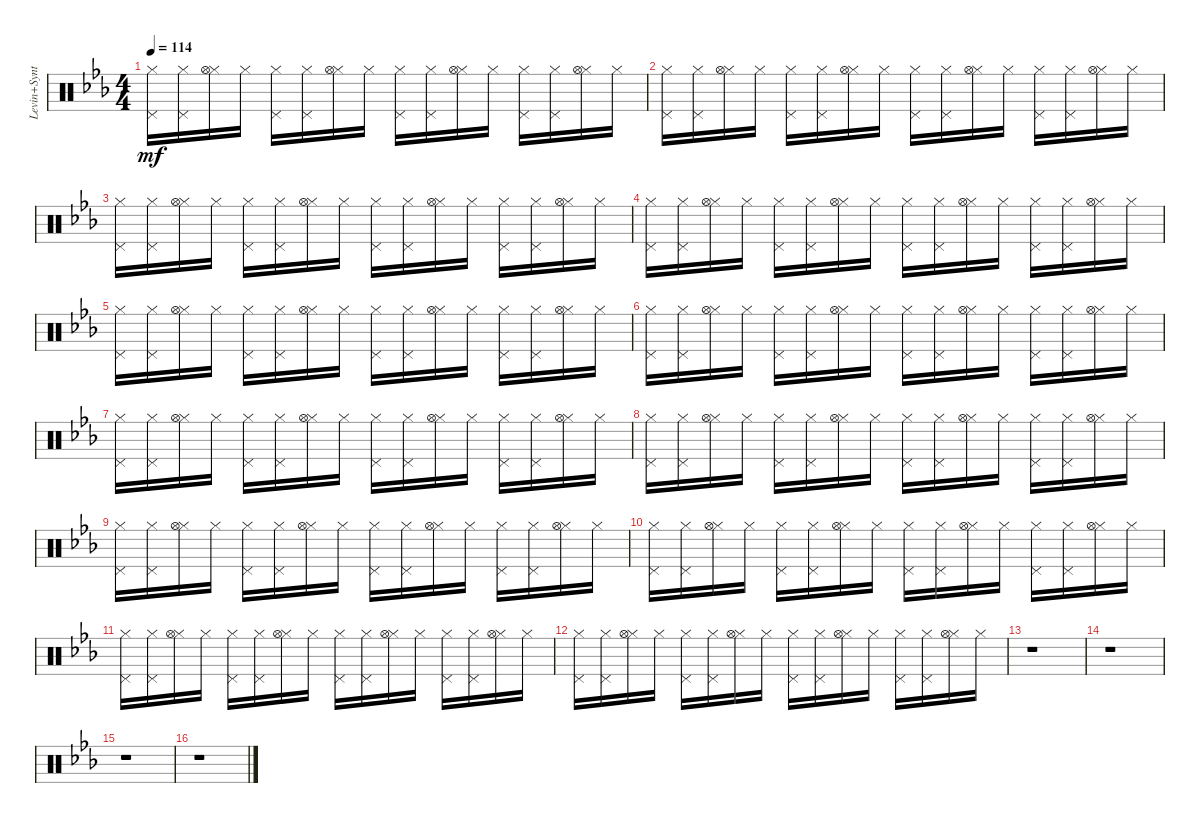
\track ("Levin+Synth" "Levin+Synt") {instrument percussion}
\staff {score}
\articulation defaults
\ts (4 4)
\tempo 114
\clef neutral
\ks eb
("Hi-Hat (closed)" "Pedal Hi-Hat (hit)").16{dy mf} ("Hi-Hat (closed)" "Pedal Hi-Hat (hit)").16 ("Hi-Hat (closed)" "Hi-Hat (open)").16 "Hi-Hat (closed)".16 ("Hi-Hat (closed)" "Pedal Hi-Hat (hit)").16 ("Hi-Hat (closed)" "Pedal Hi-Hat (hit)").16 ("Hi-Hat (closed)" "Hi-Hat (open)").16 "Hi-Hat (closed)".16 ("Hi-Hat (closed)" "Pedal Hi-Hat (hit)").16 ("Hi-Hat (closed)" "Pedal Hi-Hat (hit)").16 ("Hi-Hat (closed)" "Hi-Hat (open)").16 "Hi-Hat (closed)".16 ("Hi-Hat (closed)" "Pedal Hi-Hat (hit)").16 ("Hi-Hat (closed)" "Pedal Hi-Hat (hit)").16 ("Hi-Hat (closed)" "Hi-Hat (open)").16 "Hi-Hat (closed)".16 |
("Hi-Hat (closed)" "Pedal Hi-Hat (hit)").16 ("Hi-Hat (closed)" "Pedal Hi-Hat (hit)").16 ("Hi-Hat (closed)" "Hi-Hat (open)").16 "Hi-Hat (closed)".16 ("Hi-Hat (closed)" "Pedal Hi-Hat (hit)").16 ("Hi-Hat (closed)" "Pedal Hi-Hat (hit)").16 ("Hi-Hat (closed)" "Hi-Hat (open)").16 "Hi-Hat (closed)".16 ("Hi-Hat (closed)" "Pedal Hi-Hat (hit)").16 ("Hi-Hat (closed)" "Pedal Hi-Hat (hit)").16 ("Hi-Hat (closed)" "Hi-Hat (open)").16 "Hi-Hat (closed)".16 ("Hi-Hat (closed)" "Pedal Hi-Hat (hit)").16 ("Hi-Hat (closed)" "Pedal Hi-Hat (hit)").16 ("Hi-Hat (closed)" "Hi-Hat (open)").16 "Hi-Hat (closed)".16 |
("Hi-Hat (closed)" "Pedal Hi-Hat (hit)").16 ("Hi-Hat (closed)" "Pedal Hi-Hat (hit)").16 ("Hi-Hat (closed)" "Hi-Hat (open)").16 "Hi-Hat (closed)".16 ("Hi-Hat (closed)" "Pedal Hi-Hat (hit)").16 ("Hi-Hat (closed)" "Pedal Hi-Hat (hit)").16 ("Hi-Hat (closed)" "Hi-Hat (open)").16 "Hi-Hat (closed)".16 ("Hi-Hat (closed)" "Pedal Hi-Hat (hit)").16 ("Hi-Hat (closed)" "Pedal Hi-Hat (hit)").16 ("Hi-Hat (closed)" "Hi-Hat (open)").16 "Hi-Hat (closed)".16 ("Hi-Hat (closed)" "Pedal Hi-Hat (hit)").16 ("Hi-Hat (closed)" "Pedal Hi-Hat (hit)").16 ("Hi-Hat (closed)" "Hi-Hat (open)").16 "Hi-Hat (closed)".16 |
("Hi-Hat (closed)" "Pedal Hi-Hat (hit)").16 ("Hi-Hat (closed)" "Pedal Hi-Hat (hit)").16 ("Hi-Hat (closed)" "Hi-Hat (open)").16 "Hi-Hat (closed)".16 ("Hi-Hat (closed)" "Pedal Hi-Hat (hit)").16 ("Hi-Hat (closed)" "Pedal Hi-Hat (hit)").16 ("Hi-Hat (closed)" "Hi-Hat (open)").16 "Hi-Hat (closed)".16 ("Hi-Hat (closed)" "Pedal Hi-Hat (hit)").16 ("Hi-Hat (closed)" "Pedal Hi-Hat (hit)").16 ("Hi-Hat (closed)" "Hi-Hat (open)").16 "Hi-Hat (closed)".16 ("Hi-Hat (closed)" "Pedal Hi-Hat (hit)").16 ("Hi-Hat (closed)" "Pedal Hi-Hat (hit)").16 ("Hi-Hat (closed)" "Hi-Hat (open)").16 "Hi-Hat (closed)".16 |
("Hi-Hat (closed)" "Pedal Hi-Hat (hit)").16 ("Hi-Hat (closed)" "Pedal Hi-Hat (hit)").16 ("Hi-Hat (closed)" "Hi-Hat (open)").16 "Hi-Hat (closed)".16 ("Hi-Hat (closed)" "Pedal Hi-Hat (hit)").16 ("Hi-Hat (closed)" "Pedal Hi-Hat (hit)").16 ("Hi-Hat (closed)" "Hi-Hat (open)").16 "Hi-Hat (closed)".16 ("Hi-Hat (closed)" "Pedal Hi-Hat (hit)").16 ("Hi-Hat (closed)" "Pedal Hi-Hat (hit)").16 ("Hi-Hat (closed)" "Hi-Hat (open)").16 "Hi-Hat (closed)".16 ("Hi-Hat (closed)" "Pedal Hi-Hat (hit)").16 ("Hi-Hat (closed)" "Pedal Hi-Hat (hit)").16 ("Hi-Hat (closed)" "Hi-Hat (open)").16 "Hi-Hat (closed)".16 |
("Hi-Hat (closed)" "Pedal Hi-Hat (hit)").16 ("Hi-Hat (closed)" "Pedal Hi-Hat (hit)").16 ("Hi-Hat (closed)" "Hi-Hat (open)").16 "Hi-Hat (closed)".16 ("Hi-Hat (closed)" "Pedal Hi-Hat (hit)").16 ("Hi-Hat (closed)" "Pedal Hi-Hat (hit)").16 ("Hi-Hat (closed)" "Hi-Hat (open)").16 "Hi-Hat (closed)".16 ("Hi-Hat (closed)" "Pedal Hi-Hat (hit)").16 ("Hi-Hat (closed)" "Pedal Hi-Hat (hit)").16 ("Hi-Hat (closed)" "Hi-Hat (open)").16 "Hi-Hat (closed)".16 ("Hi-Hat (closed)" "Pedal Hi-Hat (hit)").16 ("Hi-Hat (closed)" "Pedal Hi-Hat (hit)").16 ("Hi-Hat (closed)" "Hi-Hat (open)").16 "Hi-Hat (closed)".16 |
("Hi-Hat (closed)" "Pedal Hi-Hat (hit)").16 ("Hi-Hat (closed)" "Pedal Hi-Hat (hit)").16 ("Hi-Hat (closed)" "Hi-Hat (open)").16 "Hi-Hat (closed)".16 ("Hi-Hat (closed)" "Pedal Hi-Hat (hit)").16 ("Hi-Hat (closed)" "Pedal Hi-Hat (hit)").16 ("Hi-Hat (closed)" "Hi-Hat (open)").16 "Hi-Hat (closed)".16 ("Hi-Hat (closed)" "Pedal Hi-Hat (hit)").16 ("Hi-Hat (closed)" "Pedal Hi-Hat (hit)").16 ("Hi-Hat (closed)" "Hi-Hat (open)").16 "Hi-Hat (closed)".16 ("Hi-Hat (closed)" "Pedal Hi-Hat (hit)").16 ("Hi-Hat (closed)" "Pedal Hi-Hat (hit)").16 ("Hi-Hat (closed)" "Hi-Hat (open)").16 "Hi-Hat (closed)".16 |
("Hi-Hat (closed)" "Pedal Hi-Hat (hit)").16 ("Hi-Hat (closed)" "Pedal Hi-Hat (hit)").16 ("Hi-Hat (closed)" "Hi-Hat (open)").16 "Hi-Hat (closed)".16 ("Hi-Hat (closed)" "Pedal Hi-Hat (hit)").16 ("Hi-Hat (closed)" "Pedal Hi-Hat (hit)").16 ("Hi-Hat (closed)" "Hi-Hat (open)").16 "Hi-Hat (closed)".16 ("Hi-Hat (closed)" "Pedal Hi-Hat (hit)").16 ("Hi-Hat (closed)" "Pedal Hi-Hat (hit)").16 ("Hi-Hat (closed)" "Hi-Hat (open)").16 "Hi-Hat (closed)".16 ("Hi-Hat (closed)" "Pedal Hi-Hat (hit)").16 ("Hi-Hat (closed)" "Pedal Hi-Hat (hit)").16 ("Hi-Hat (closed)" "Hi-Hat (open)").16 "Hi-Hat (closed)".16 |
("Hi-Hat (closed)" "Pedal Hi-Hat (hit)").16 ("Hi-Hat (closed)" "Pedal Hi-Hat (hit)").16 ("Hi-Hat (closed)" "Hi-Hat (open)").16 "Hi-Hat (closed)".16 ("Hi-Hat (closed)" "Pedal Hi-Hat (hit)").16 ("Hi-Hat (closed)" "Pedal Hi-Hat (hit)").16 ("Hi-Hat (closed)" "Hi-Hat (open)").16 "Hi-Hat (closed)".16 ("Hi-Hat (closed)" "Pedal Hi-Hat (hit)").16 ("Hi-Hat (closed)" "Pedal Hi-Hat (hit)").16 ("Hi-Hat (closed)" "Hi-Hat (open)").16 "Hi-Hat (closed)".16 ("Hi-Hat (closed)" "Pedal Hi-Hat (hit)").16 ("Hi-Hat (closed)" "Pedal Hi-Hat (hit)").16 ("Hi-Hat (closed)" "Hi-Hat (open)").16 "Hi-Hat (closed)".16 |
("Hi-Hat (closed)" "Pedal Hi-Hat (hit)").16 ("Hi-Hat (closed)" "Pedal Hi-Hat (hit)").16 ("Hi-Hat (closed)" "Hi-Hat (open)").16 "Hi-Hat (closed)".16 ("Hi-Hat (closed)" "Pedal Hi-Hat (hit)").16 ("Hi-Hat (closed)" "Pedal Hi-Hat (hit)").16 ("Hi-Hat (closed)" "Hi-Hat (open)").16 "Hi-Hat (closed)".16 ("Hi-Hat (closed)" "Pedal Hi-Hat (hit)").16 ("Hi-Hat (closed)" "Pedal Hi-Hat (hit)").16 ("Hi-Hat (closed)" "Hi-Hat (open)").16 "Hi-Hat (closed)".16 ("Hi-Hat (closed)" "Pedal Hi-Hat (hit)").16 ("Hi-Hat (closed)" "Pedal Hi-Hat (hit)").16 ("Hi-Hat (closed)" "Hi-Hat (open)").16 "Hi-Hat (closed)".16 |
("Hi-Hat (closed)" "Pedal Hi-Hat (hit)").16 ("Hi-Hat (closed)" "Pedal Hi-Hat (hit)").16 ("Hi-Hat (closed)" "Hi-Hat (open)").16 "Hi-Hat (closed)".16 ("Hi-Hat (closed)" "Pedal Hi-Hat (hit)").16 ("Hi-Hat (closed)" "Pedal Hi-Hat (hit)").16 ("Hi-Hat (closed)" "Hi-Hat (open)").16 "Hi-Hat (closed)".16 ("Hi-Hat (closed)" "Pedal Hi-Hat (hit)").16 ("Hi-Hat (closed)" "Pedal Hi-Hat (hit)").16 ("Hi-Hat (closed)" "Hi-Hat (open)").16 "Hi-Hat (closed)".16 ("Hi-Hat (closed)" "Pedal Hi-Hat (hit)").16 ("Hi-Hat (closed)" "Pedal Hi-Hat (hit)").16 ("Hi-Hat (closed)" "Hi-Hat (open)").16 "Hi-Hat (closed)".16 |
("Hi-Hat (closed)" "Pedal Hi-Hat (hit)").16 ("Hi-Hat (closed)" "Pedal Hi-Hat (hit)").16 ("Hi-Hat (closed)" "Hi-Hat (open)").16 "Hi-Hat (closed)".16 ("Hi-Hat (closed)" "Pedal Hi-Hat (hit)").16 ("Hi-Hat (closed)" "Pedal Hi-Hat (hit)").16 ("Hi-Hat (closed)" "Hi-Hat (open)").16 "Hi-Hat (closed)".16 ("Hi-Hat (closed)" "Pedal Hi-Hat (hit)").16 ("Hi-Hat (closed)" "Pedal Hi-Hat (hit)").16 ("Hi-Hat (closed)" "Hi-Hat (open)").16 "Hi-Hat (closed)".16 ("Hi-Hat (closed)" "Pedal Hi-Hat (hit)").16 ("Hi-Hat (closed)" "Pedal Hi-Hat (hit)").16 ("Hi-Hat (closed)" "Hi-Hat (open)").16 "Hi-Hat (closed)".16 |
r.1 |
r.1 |
r.1 |
r.1
